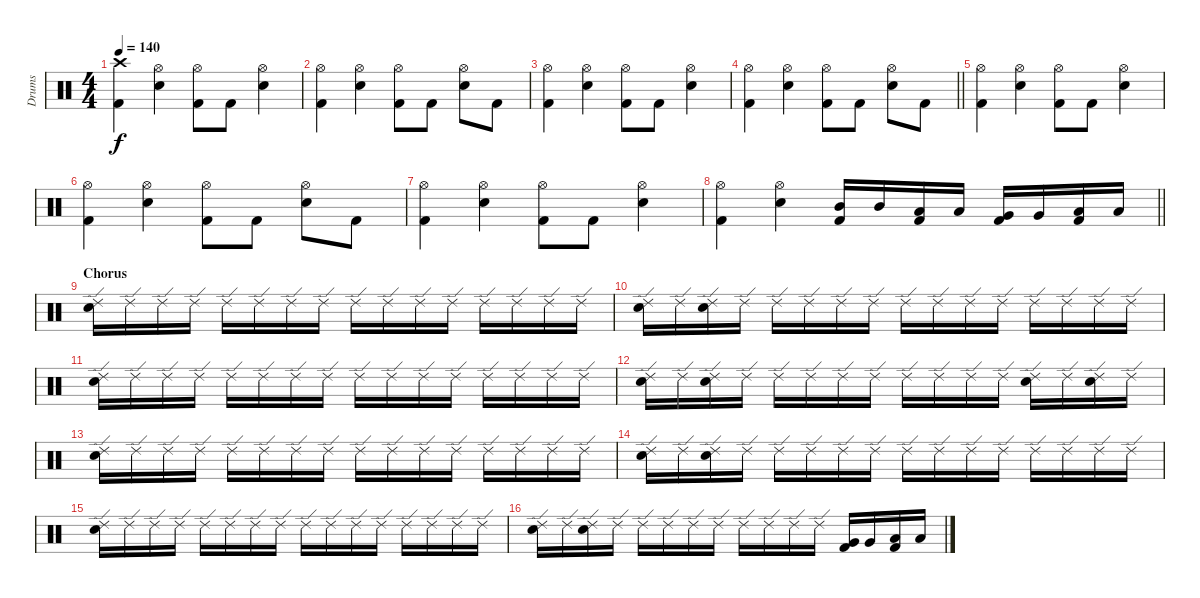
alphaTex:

\track ("Drums " "Drums ") {instrument percussion}
\staff {score}
\articulation defaults
\ts (4 4)
\tempo 140
\clef neutral
\ks c
("Crash high (hit)" "Kick (hit) 2").4{dy f} ("Hi-Hat (open)" "Electric Snare (hit)").4 ("Hi-Hat (open)" "Kick (hit) 2").8 "Kick (hit) 2".8 ("Hi-Hat (open)" "Electric Snare (hit)").4 |
("Hi-Hat (open)" "Kick (hit) 2").4 ("Hi-Hat (open)" "Electric Snare (hit)").4 ("Hi-Hat (open)" "Kick (hit) 2").8 "Kick (hit) 2".8 ("Hi-Hat (open)" "Electric Snare (hit)").8 "Kick (hit) 2".8 |
("Hi-Hat (open)" "Kick (hit) 2").4 ("Hi-Hat (open)" "Electric Snare (hit)").4 ("Hi-Hat (open)" "Kick (hit) 2").8 "Kick (hit) 2".8 ("Hi-Hat (open)" "Electric Snare (hit)").4 |
\barLineRight lightlight
("Hi-Hat (open)" "Kick (hit) 2").4 ("Hi-Hat (open)" "Electric Snare (hit)").4 ("Hi-Hat (open)" "Kick (hit) 2").8 "Kick (hit) 2".8 ("Hi-Hat (open)" "Electric Snare (hit)").8 "Kick (hit) 2".8 |
("Hi-Hat (open)" "Kick (hit) 2").4 ("Hi-Hat (open)" "Electric Snare (hit)").4 ("Hi-Hat (open)" "Kick (hit) 2").8 "Kick (hit) 2".8 ("Hi-Hat (open)" "Electric Snare (hit)").4 |
("Hi-Hat (open)" "Kick (hit) 2").4 ("Hi-Hat (open)" "Electric Snare (hit)").4 ("Hi-Hat (open)" "Kick (hit) 2").8 "Kick (hit) 2".8 ("Hi-Hat (open)" "Electric Snare (hit)").8 "Kick (hit) 2".8 |
("Hi-Hat (open)" "Kick (hit) 2").4 ("Hi-Hat (open)" "Electric Snare (hit)").4 ("Hi-Hat (open)" "Kick (hit) 2").8 "Kick (hit) 2".8 ("Hi-Hat (open)" "Electric Snare (hit)").4 |
\barLineRight lightlight
("Hi-Hat (open)" "Kick (hit) 2").4 ("Hi-Hat (open)" "Electric Snare (hit)").4 ("Mid Tom (hit)" "Kick (hit) 2").16 "Mid Tom (hit)".16 ("Low Tom (hit)" "Kick (hit) 2").16 "Low Tom (hit)".16 ("Very Low Tom (hit)" "Kick (hit) 2").16 "Very Low Tom (hit)".16 ("Low Floor Tom (hit)" "Kick (hit) 2").16 "Low Floor Tom (hit)".16 |
\section ("" "Chorus ")
("Ride (edge) 2" "Electric Snare (hit)").16 "Ride (edge) 2".16 "Ride (edge) 2".16 "Ride (edge) 2".16 "Ride (edge) 2".16 "Ride (edge) 2".16 "Ride (edge) 2".16 "Ride (edge) 2".16 "Ride (edge) 2".16 "Ride (edge) 2".16 "Ride (edge) 2".16 "Ride (edge) 2".16 "Ride (edge) 2".16 "Ride (edge) 2".16 "Ride (edge) 2".16 "Ride (edge) 2".16 |
("Ride (edge) 2" "Electric Snare (hit)").16 "Ride (edge) 2".16 ("Ride (edge) 2" "Electric Snare (hit)").16 "Ride (edge) 2".16 "Ride (edge) 2".16 "Ride (edge) 2".16 "Ride (edge) 2".16 "Ride (edge) 2".16 "Ride (edge) 2".16 "Ride (edge) 2".16 "Ride (edge) 2".16 "Ride (edge) 2".16 "Ride (edge) 2".16 "Ride (edge) 2".16 "Ride (edge) 2".16 "Ride (edge) 2".16 |
("Ride (edge) 2" "Electric Snare (hit)").16 "Ride (edge) 2".16 "Ride (edge) 2".16 "Ride (edge) 2".16 "Ride (edge) 2".16 "Ride (edge) 2".16 "Ride (edge) 2".16 "Ride (edge) 2".16 "Ride (edge) 2".16 "Ride (edge) 2".16 "Ride (edge) 2".16 "Ride (edge) 2".16 "Ride (edge) 2".16 "Ride (edge) 2".16 "Ride (edge) 2".16 "Ride (edge) 2".16 |
("Ride (edge) 2" "Electric Snare (hit)").16 "Ride (edge) 2".16 ("Ride (edge) 2" "Electric Snare (hit)").16 "Ride (edge) 2".16 "Ride (edge) 2".16 "Ride (edge) 2".16 "Ride (edge) 2".16 "Ride (edge) 2".16 "Ride (edge) 2".16 "Ride (edge) 2".16 "Ride (edge) 2".16 "Ride (edge) 2".16 ("Ride (edge) 2" "Electric Snare (hit)").16 "Ride (edge) 2".16 ("Ride (edge) 2" "Electric Snare (hit)").16 "Ride (edge) 2".16 |
("Ride (edge) 2" "Electric Snare (hit)").16 "Ride (edge) 2".16 "Ride (edge) 2".16 "Ride (edge) 2".16 "Ride (edge) 2".16 "Ride (edge) 2".16 "Ride (edge) 2".16 "Ride (edge) 2".16 "Ride (edge) 2".16 "Ride (edge) 2".16 "Ride (edge) 2".16 "Ride (edge) 2".16 "Ride (edge) 2".16 "Ride (edge) 2".16 "Ride (edge) 2".16 "Ride (edge) 2".16 |
("Ride (edge) 2" "Electric Snare (hit)").16 "Ride (edge) 2".16 ("Ride (edge) 2" "Electric Snare (hit)").16 "Ride (edge) 2".16 "Ride (edge) 2".16 "Ride (edge) 2".16 "Ride (edge) 2".16 "Ride (edge) 2".16 "Ride (edge) 2".16 "Ride (edge) 2".16 "Ride (edge) 2".16 "Ride (edge) 2".16 "Ride (edge) 2".16 "Ride (edge) 2".16 "Ride (edge) 2".16 "Ride (edge) 2".16 |
("Ride (edge) 2" "Electric Snare (hit)").16 "Ride (edge) 2".16 "Ride (edge) 2".16 "Ride (edge) 2".16 "Ride (edge) 2".16 "Ride (edge) 2".16 "Ride (edge) 2".16 "Ride (edge) 2".16 "Ride (edge) 2".16 "Ride (edge) 2".16 "Ride (edge) 2".16 "Ride (edge) 2".16 "Ride (edge) 2".16 "Ride (edge) 2".16 "Ride (edge) 2".16 "Ride (edge) 2".16 |
("Ride (edge) 2" "Electric Snare (hit)").16 "Ride (edge) 2".16 ("Ride (edge) 2" "Electric Snare (hit)").16 "Ride (edge) 2".16 "Ride (edge) 2".16 "Ride (edge) 2".16 "Ride (edge) 2".16 "Ride (edge) 2".16 "Ride (edge) 2".16 "Ride (edge) 2".16 "Ride (edge) 2".16 "Ride (edge) 2".16 ("Very Low Tom (hit)" "Kick (hit) 2").16 "Very Low Tom (hit)".16 ("Low Floor Tom (hit)" "Kick (hit) 2").16 "Low Floor Tom (hit)".16
